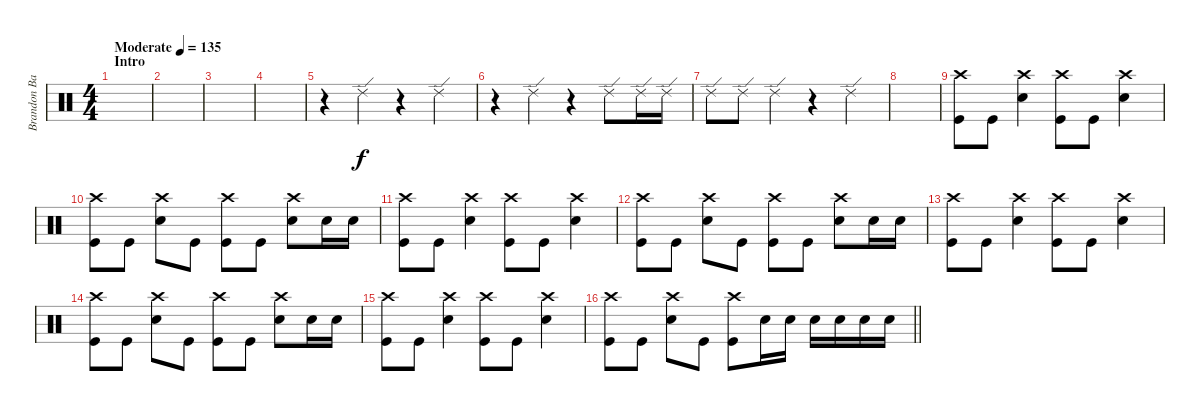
\track ("Brandon Barnes - Drums" "Brandon Ba") {instrument percussion}
\staff {score}
\articulation defaults
\ts (4 4)
\section ("" "Intro")
\tempo (135 "Moderate")
\clef neutral
\ks c
|
|
|
|
r.4{volume 14} "Ride (edge) 2".4 r.4 "Ride (edge) 2".4 |
r.4 "Ride (edge) 2".4 r.4 "Ride (edge) 2".8 "Ride (edge) 2".16 "Ride (edge) 2".16 |
"Ride (edge) 2".8 "Ride (edge) 2".8 "Ride (edge) 2".4 r.4 "Ride (edge) 2".4 |
|
("Crash high (hit)" "Kick (hit)").8 "Kick (hit)".8 ("Snare (hit) 2" "Crash high (hit)").4 ("Crash high (hit)" "Kick (hit)").8 "Kick (hit)".8 ("Snare (hit) 2" "Crash high (hit)").4 |
("Crash high (hit)" "Kick (hit)").8 "Kick (hit)".8 ("Snare (hit) 2" "Crash high (hit)").8 "Kick (hit)".8 ("Crash high (hit)" "Kick (hit)").8 "Kick (hit)".8 ("Snare (hit) 2" "Crash high (hit)").8 "Snare (hit) 2".16 "Snare (hit) 2".16 |
("Crash high (hit)" "Kick (hit)").8 "Kick (hit)".8 ("Snare (hit) 2" "Crash high (hit)").4 ("Crash high (hit)" "Kick (hit)").8 "Kick (hit)".8 ("Snare (hit) 2" "Crash high (hit)").4 |
("Crash high (hit)" "Kick (hit)").8 "Kick (hit)".8 ("Snare (hit) 2" "Crash high (hit)").8 "Kick (hit)".8 ("Crash high (hit)" "Kick (hit)").8 "Kick (hit)".8 ("Snare (hit) 2" "Crash high (hit)").8 "Snare (hit) 2".16 "Snare (hit) 2".16 |
("Crash high (hit)" "Kick (hit)").8 "Kick (hit)".8 ("Snare (hit) 2" "Crash high (hit)").4 ("Crash high (hit)" "Kick (hit)").8 "Kick (hit)".8 ("Snare (hit) 2" "Crash high (hit)").4 |
("Crash high (hit)" "Kick (hit)").8 "Kick (hit)".8 ("Snare (hit) 2" "Crash high (hit)").8 "Kick (hit)".8 ("Crash high (hit)" "Kick (hit)").8 "Kick (hit)".8 ("Snare (hit) 2" "Crash high (hit)").8 "Snare (hit) 2".16 "Snare (hit) 2".16 |
("Crash high (hit)" "Kick (hit)").8 "Kick (hit)".8 ("Snare (hit) 2" "Crash high (hit)").4 ("Crash high (hit)" "Kick (hit)").8 "Kick (hit)".8 ("Snare (hit) 2" "Crash high (hit)").4 |
\barLineRight lightlight
("Crash high (hit)" "Kick (hit)").8 "Kick (hit)".8 ("Snare (hit) 2" "Crash high (hit)").8 "Kick (hit)".8 ("Crash high (hit)" "Kick (hit)").8 "Snare (hit) 2".16 "Snare (hit) 2".16 "Snare (hit) 2".16 "Snare (hit) 2".16 "Snare (hit) 2".16 "Snare (hit) 2".16
